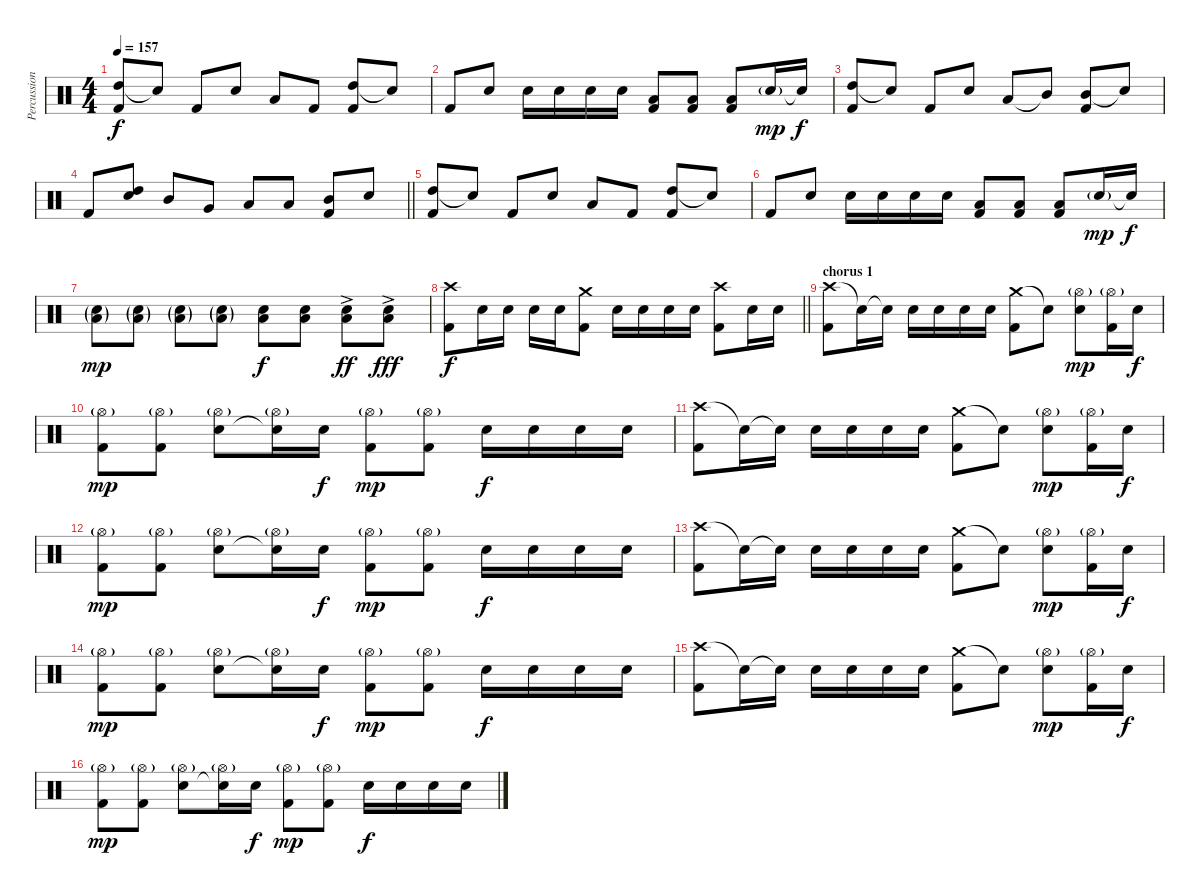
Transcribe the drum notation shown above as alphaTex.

\track ("Percussion" "Percussion") {instrument percussion}
\staff {score}
\articulation defaults
\ts (4 4)
\tempo 157
\clef neutral
\ks c
("High Tom (hit)" "Kick (hit) 2").8{dy f} "Snare (hit)"{t}.8 "Kick (hit) 2".8 "Electric Snare (hit)".8 "Low Tom (hit)".8 "Kick (hit) 2".8 ("High Tom (hit)" "Kick (hit) 2").8 "Snare (hit)"{t}.8 |
"Kick (hit) 2".8 "Electric Snare (hit)".8 "Electric Snare (hit)".16 "Electric Snare (hit)".16 "Electric Snare (hit)".16 "Electric Snare (hit)".16 ("Low Tom (hit)" "Kick (hit) 2").8 ("Low Tom (hit)" "Kick (hit) 2").8 ("Low Tom (hit)" "Kick (hit) 2").8 "Electric Snare (hit)"{g}.16{dy mp} "Snare (hit)"{t}.16{dy f} |
("High Tom (hit)" "Kick (hit) 2").8 "Snare (hit)"{t}.8 "Kick (hit) 2".8 "Electric Snare (hit)".8 "Low Tom (hit)".8 "Mid Tom (hit)"{t}.8 ("Mid Tom (hit)" "Kick (hit) 2").8 "Snare (hit)"{t}.8 |
\barLineRight lightlight "Kick (hit) 2".8
("High Tom (hit)" "Electric Snare (hit)").8 "Mid Tom (hit)".8 "Very Low Tom (hit)".8 "Low Tom (hit)".8 "Low Floor Tom (hit)".8 ("Mid Tom (hit)" "Kick (hit) 2").8 "Electric Snare (hit)".8 |
("High Tom (hit)" "Kick (hit) 2").8 "Snare (hit)"{t}.8 "Kick (hit) 2".8 "Electric Snare (hit)".8 "Low Tom (hit)".8 "Kick (hit) 2".8 ("High Tom (hit)" "Kick (hit) 2").8 "Snare (hit)"{t}.8 |
"Kick (hit) 2".8 "Electric Snare (hit)".8 "Electric Snare (hit)".16 "Electric Snare (hit)".16 "Electric Snare (hit)".16 "Electric Snare (hit)".16 ("Low Tom (hit)" "Kick (hit) 2").8 ("Low Tom (hit)" "Kick (hit) 2").8 ("Low Tom (hit)" "Kick (hit) 2").8 "Electric Snare (hit)"{g}.16{dy mp} "Snare (hit)"{t}.16{dy f} |
("Low Floor Tom (hit)"{g} "Electric Snare (hit)"{g}).8{dy mp} ("Low Floor Tom (hit)"{g} "Electric Snare (hit)"{g}).8 ("Low Floor Tom (hit)"{g} "Electric Snare (hit)"{g}).8 ("Low Floor Tom (hit)"{g} "Electric Snare (hit)"{g}).8 ("Low Floor Tom (hit)" "Electric Snare (hit)").8{dy f} ("Low Floor Tom (hit)" "Electric Snare (hit)").8 ("Low Floor Tom (hit)"{ac} "Electric Snare (hit)"{ac}).8{dy ff} ("Low Floor Tom (hit)"{ac} "Electric Snare (hit)"{ac}).8{dy fff} |
\barLineRight lightlight
("Crash high (hit)" "Kick (hit) 2").8{dy f} "Electric Snare (hit)".16 "Electric Snare (hit)".16 "Electric Snare (hit)".16 "Electric Snare (hit)".16 ("Crash medium (hit)" "Kick (hit) 2").8 "Electric Snare (hit)".16 "Electric Snare (hit)".16 "Electric Snare (hit)".16 "Electric Snare (hit)".16 ("Crash high (hit)" "Kick (hit) 2").8 "Electric Snare (hit)".16 "Electric Snare (hit)".16 |
\section ("" "chorus 1")
("Crash high (hit)" "Kick (hit) 2").8 "Electric Snare (hit)"{t}.16 "Electric Snare (hit)"{t}.16 "Electric Snare (hit)".16 "Electric Snare (hit)".16 "Electric Snare (hit)".16 "Electric Snare (hit)".16 ("Crash medium (hit)" "Kick (hit) 2").8 "Snare (hit)"{t}.8 ("Hi-Hat (open)"{g} "Electric Snare (hit)").8{dy mp} ("Hi-Hat (open)"{g} "Kick (hit) 2").16 "Electric Snare (hit)".16{dy f} |
("Hi-Hat (open)"{g} "Kick (hit) 2").8{dy mp} ("Hi-Hat (open)"{g} "Kick (hit) 2").8 ("Hi-Hat (open)"{g} "Electric Snare (hit)").8 ("Hi-Hat (open)"{g} "Snare (hit)"{t}).16 "Electric Snare (hit)".16{dy f} ("Hi-Hat (open)"{g} "Kick (hit) 2").8{dy mp} ("Hi-Hat (open)"{g} "Kick (hit) 2").8 "Electric Snare (hit)".16{dy f} "Electric Snare (hit)".16 "Electric Snare (hit)".16 "Electric Snare (hit)".16 |
("Crash high (hit)" "Kick (hit) 2").8 "Electric Snare (hit)"{t}.16 "Electric Snare (hit)"{t}.16 "Electric Snare (hit)".16 "Electric Snare (hit)".16 "Electric Snare (hit)".16 "Electric Snare (hit)".16 ("Crash medium (hit)" "Kick (hit) 2").8 "Snare (hit)"{t}.8 ("Hi-Hat (open)"{g} "Electric Snare (hit)").8{dy mp} ("Hi-Hat (open)"{g} "Kick (hit) 2").16 "Electric Snare (hit)".16{dy f} |
("Hi-Hat (open)"{g} "Kick (hit) 2").8{dy mp} ("Hi-Hat (open)"{g} "Kick (hit) 2").8 ("Hi-Hat (open)"{g} "Electric Snare (hit)").8 ("Hi-Hat (open)"{g} "Snare (hit)"{t}).16 "Electric Snare (hit)".16{dy f} ("Hi-Hat (open)"{g} "Kick (hit) 2").8{dy mp} ("Hi-Hat (open)"{g} "Kick (hit) 2").8 "Electric Snare (hit)".16{dy f} "Electric Snare (hit)".16 "Electric Snare (hit)".16 "Electric Snare (hit)".16 |
("Crash high (hit)" "Kick (hit) 2").8 "Electric Snare (hit)"{t}.16 "Electric Snare (hit)"{t}.16 "Electric Snare (hit)".16 "Electric Snare (hit)".16 "Electric Snare (hit)".16 "Electric Snare (hit)".16 ("Crash medium (hit)" "Kick (hit) 2").8 "Snare (hit)"{t}.8 ("Hi-Hat (open)"{g} "Electric Snare (hit)").8{dy mp} ("Hi-Hat (open)"{g} "Kick (hit) 2").16 "Electric Snare (hit)".16{dy f} |
("Hi-Hat (open)"{g} "Kick (hit) 2").8{dy mp} ("Hi-Hat (open)"{g} "Kick (hit) 2").8 ("Hi-Hat (open)"{g} "Electric Snare (hit)").8 ("Hi-Hat (open)"{g} "Snare (hit)"{t}).16 "Electric Snare (hit)".16{dy f} ("Hi-Hat (open)"{g} "Kick (hit) 2").8{dy mp} ("Hi-Hat (open)"{g} "Kick (hit) 2").8 "Electric Snare (hit)".16{dy f} "Electric Snare (hit)".16 "Electric Snare (hit)".16 "Electric Snare (hit)".16 |
("Crash high (hit)" "Kick (hit) 2").8 "Electric Snare (hit)"{t}.16 "Electric Snare (hit)"{t}.16 "Electric Snare (hit)".16 "Electric Snare (hit)".16 "Electric Snare (hit)".16 "Electric Snare (hit)".16 ("Crash medium (hit)" "Kick (hit) 2").8 "Snare (hit)"{t}.8 ("Hi-Hat (open)"{g} "Electric Snare (hit)").8{dy mp} ("Hi-Hat (open)"{g} "Kick (hit) 2").16 "Electric Snare (hit)".16{dy f} |
("Hi-Hat (open)"{g} "Kick (hit) 2").8{dy mp} ("Hi-Hat (open)"{g} "Kick (hit) 2").8 ("Hi-Hat (open)"{g} "Electric Snare (hit)").8 ("Hi-Hat (open)"{g} "Snare (hit)"{t}).16 "Electric Snare (hit)".16{dy f} ("Hi-Hat (open)"{g} "Kick (hit) 2").8{dy mp} ("Hi-Hat (open)"{g} "Kick (hit) 2").8 "Electric Snare (hit)".16{dy f} "Electric Snare (hit)".16 "Electric Snare (hit)".16 "Electric Snare (hit)".16
